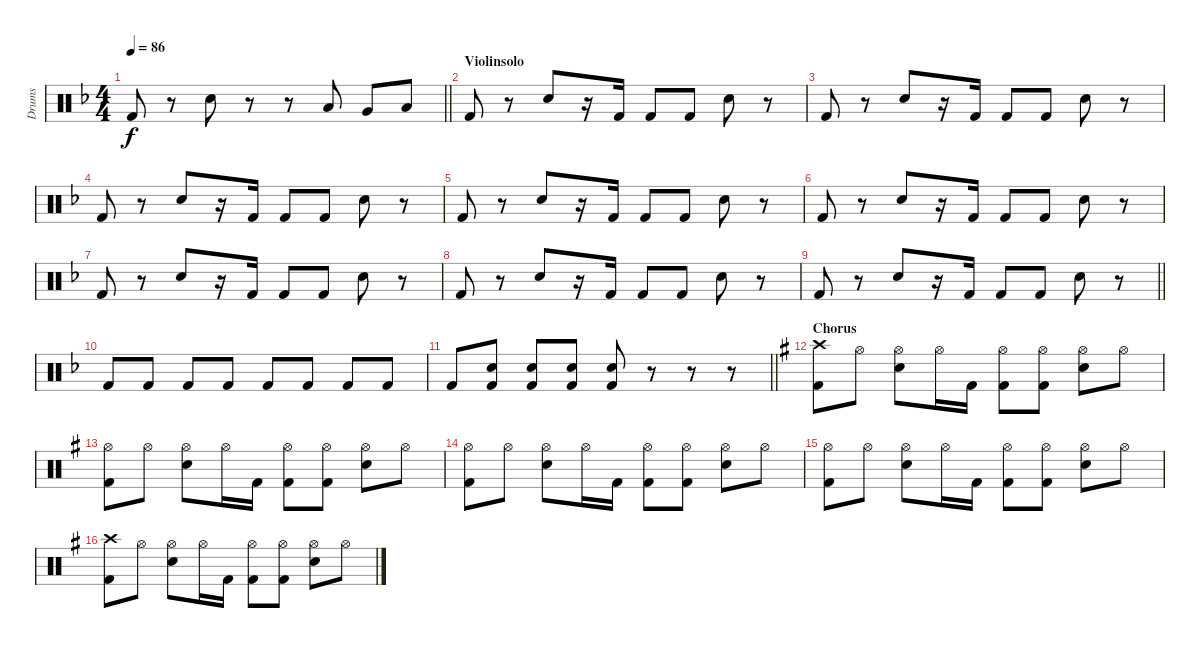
\track ("Drums" "Drums") {instrument percussion}
\staff {score}
\articulation defaults
\ts (4 4)
\tempo 86
\clef neutral
\barLineRight lightlight
\ks dminor "Kick (hit) 2".8{dy f}
r.8 "Snare (hit) 2".8 r.8 r.8 "Low Tom (hit)".8 "Very Low Tom (hit)".8 "Low Floor Tom (hit)".8 |
\section ("" "Violinsolo")
"Kick (hit) 2".8 r.8 "Snare (hit) 2".8 r.16 "Kick (hit) 2".16 "Kick (hit) 2".8 "Kick (hit) 2".8 "Snare (hit) 2".8 r.8 |
"Kick (hit) 2".8 r.8 "Snare (hit) 2".8 r.16 "Kick (hit) 2".16 "Kick (hit) 2".8 "Kick (hit) 2".8 "Snare (hit) 2".8 r.8 |
"Kick (hit) 2".8 r.8 "Snare (hit) 2".8 r.16 "Kick (hit) 2".16 "Kick (hit) 2".8 "Kick (hit) 2".8 "Snare (hit) 2".8 r.8 |
"Kick (hit) 2".8 r.8 "Snare (hit) 2".8 r.16 "Kick (hit) 2".16 "Kick (hit) 2".8 "Kick (hit) 2".8 "Snare (hit) 2".8 r.8 |
"Kick (hit) 2".8 r.8 "Snare (hit) 2".8 r.16 "Kick (hit) 2".16 "Kick (hit) 2".8 "Kick (hit) 2".8 "Snare (hit) 2".8 r.8 |
"Kick (hit) 2".8 r.8 "Snare (hit) 2".8 r.16 "Kick (hit) 2".16 "Kick (hit) 2".8 "Kick (hit) 2".8 "Snare (hit) 2".8 r.8 |
"Kick (hit) 2".8 r.8 "Snare (hit) 2".8 r.16 "Kick (hit) 2".16 "Kick (hit) 2".8 "Kick (hit) 2".8 "Snare (hit) 2".8 r.8 |
\barLineRight lightlight "Kick (hit) 2".8
r.8 "Snare (hit) 2".8 r.16 "Kick (hit) 2".16 "Kick (hit) 2".8 "Kick (hit) 2".8 "Snare (hit) 2".8 r.8 |
"Kick (hit) 2".8 "Kick (hit) 2".8 "Kick (hit) 2".8 "Kick (hit) 2".8 "Kick (hit) 2".8 "Kick (hit) 2".8 "Kick (hit) 2".8 "Kick (hit) 2".8 |
\barLineRight lightlight "Kick (hit) 2".8
("Snare (hit) 2" "Kick (hit) 2").8 ("Snare (hit) 2" "Kick (hit) 2").8 ("Snare (hit) 2" "Kick (hit) 2").8 ("Snare (hit) 2" "Kick (hit) 2").8 r.8 r.8 r.8 |
\section ("" "Chorus")
\ks eminor
("Crash high (hit)" "Kick (hit) 2").8 "Hi-Hat (open)".8 ("Hi-Hat (open)" "Snare (hit) 2").8 "Hi-Hat (open)".16 "Kick (hit) 2".16 ("Hi-Hat (open)" "Kick (hit) 2").8 ("Hi-Hat (open)" "Kick (hit) 2").8 ("Hi-Hat (open)" "Snare (hit) 2").8 "Hi-Hat (open)".8 |
("Hi-Hat (open)" "Kick (hit) 2").8 "Hi-Hat (open)".8 ("Hi-Hat (open)" "Snare (hit) 2").8 "Hi-Hat (open)".16 "Kick (hit) 2".16 ("Hi-Hat (open)" "Kick (hit) 2").8 ("Hi-Hat (open)" "Kick (hit) 2").8 ("Hi-Hat (open)" "Snare (hit) 2").8 "Hi-Hat (open)".8 |
("Hi-Hat (open)" "Kick (hit) 2").8 "Hi-Hat (open)".8 ("Hi-Hat (open)" "Snare (hit) 2").8 "Hi-Hat (open)".16 "Kick (hit) 2".16 ("Hi-Hat (open)" "Kick (hit) 2").8 ("Hi-Hat (open)" "Kick (hit) 2").8 ("Hi-Hat (open)" "Snare (hit) 2").8 "Hi-Hat (open)".8 |
("Hi-Hat (open)" "Kick (hit) 2").8 "Hi-Hat (open)".8 ("Hi-Hat (open)" "Snare (hit) 2").8 "Hi-Hat (open)".16 "Kick (hit) 2".16 ("Hi-Hat (open)" "Kick (hit) 2").8 ("Hi-Hat (open)" "Kick (hit) 2").8 ("Hi-Hat (open)" "Snare (hit) 2").8 "Hi-Hat (open)".8 |
("Crash high (hit)" "Kick (hit) 2").8 "Hi-Hat (open)".8 ("Hi-Hat (open)" "Snare (hit) 2").8 "Hi-Hat (open)".16 "Kick (hit) 2".16 ("Hi-Hat (open)" "Kick (hit) 2").8 ("Hi-Hat (open)" "Kick (hit) 2").8 ("Hi-Hat (open)" "Snare (hit) 2").8 "Hi-Hat (open)".8
